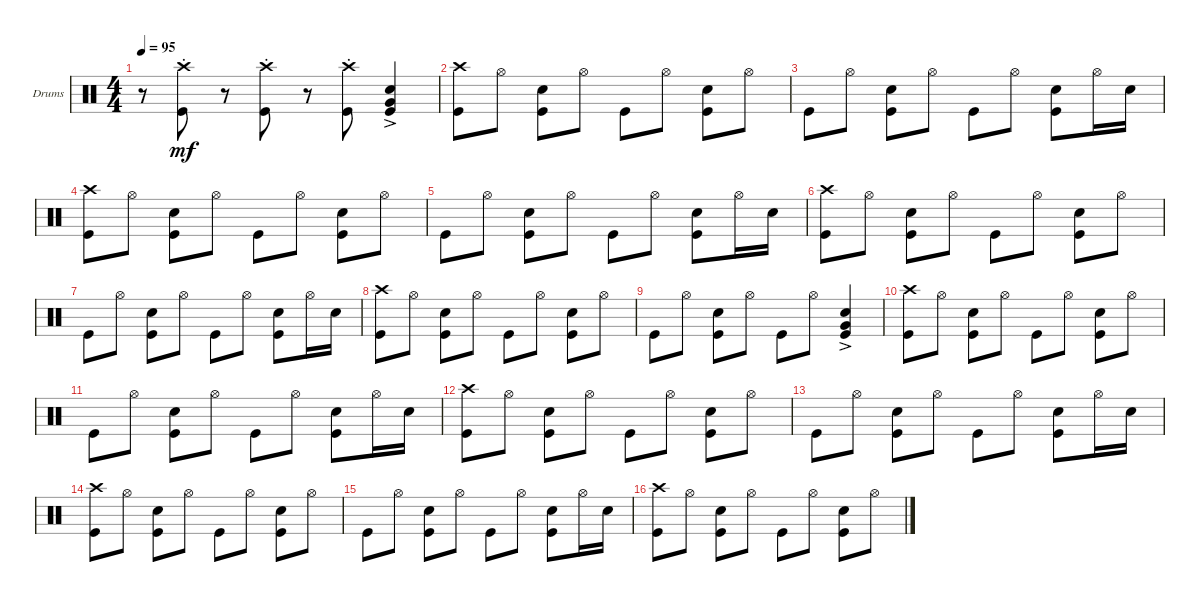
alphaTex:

\defaultSystemsLayout 4
\bracketExtendMode groupsimilarinstruments
\firstSystemTrackNameOrientation horizontal
\otherSystemsTrackNameOrientation horizontal
\track ("Drumkit" "Drums") {instrument percussion}
\staff {score}
\articulation defaults
\ts (4 4)
\tempo 95
\clef neutral
\ks c
r.8{dy mf} ("Kick (hit)" "Crash high (hit)"{st}).8 r.8 ("Kick (hit)" "Crash high (hit)"{st}).8 r.8 ("Crash high (hit)"{st} "Kick (hit)").8 ("Snare (hit) 2"{ac} "Very Low Tom (hit)"{ac} "Kick (hit)").4 |
("Crash high (hit)" "Kick (hit)").8 "Hi-Hat (open)".8 ("Snare (hit) 2" "Kick (hit)").8 "Hi-Hat (open)".8 "Kick (hit)".8 "Hi-Hat (open)".8 ("Snare (hit) 2" "Kick (hit)").8 "Hi-Hat (open)".8 |
"Kick (hit)".8 "Hi-Hat (open)".8 ("Snare (hit) 2" "Kick (hit)").8 "Hi-Hat (open)".8 "Kick (hit)".8 "Hi-Hat (open)".8 ("Snare (hit) 2" "Kick (hit)").8 "Hi-Hat (open)".16 "Snare (hit) 2".16 |
("Crash high (hit)" "Kick (hit)").8 "Hi-Hat (open)".8 ("Snare (hit) 2" "Kick (hit)").8 "Hi-Hat (open)".8 "Kick (hit)".8 "Hi-Hat (open)".8 ("Snare (hit) 2" "Kick (hit)").8 "Hi-Hat (open)".8 |
"Kick (hit)".8 "Hi-Hat (open)".8 ("Snare (hit) 2" "Kick (hit)").8 "Hi-Hat (open)".8 "Kick (hit)".8 "Hi-Hat (open)".8 ("Snare (hit) 2" "Kick (hit)").8 "Hi-Hat (open)".16 "Snare (hit) 2".16 |
("Crash high (hit)" "Kick (hit)").8 "Hi-Hat (open)".8 ("Snare (hit) 2" "Kick (hit)").8 "Hi-Hat (open)".8 "Kick (hit)".8 "Hi-Hat (open)".8 ("Snare (hit) 2" "Kick (hit)").8 "Hi-Hat (open)".8 |
"Kick (hit)".8 "Hi-Hat (open)".8 ("Snare (hit) 2" "Kick (hit)").8 "Hi-Hat (open)".8 "Kick (hit)".8 "Hi-Hat (open)".8 ("Snare (hit) 2" "Kick (hit)").8 "Hi-Hat (open)".16 "Snare (hit) 2".16 |
("Crash high (hit)" "Kick (hit)").8 "Hi-Hat (open)".8 ("Snare (hit) 2" "Kick (hit)").8 "Hi-Hat (open)".8 "Kick (hit)".8 "Hi-Hat (open)".8 ("Snare (hit) 2" "Kick (hit)").8 "Hi-Hat (open)".8 |
"Kick (hit)".8 "Hi-Hat (open)".8 ("Snare (hit) 2" "Kick (hit)").8 "Hi-Hat (open)".8 "Kick (hit)".8 "Hi-Hat (open)".8 ("Snare (hit) 2"{ac} "Very Low Tom (hit)"{ac} "Kick (hit)"{ac}).4 |
("Crash high (hit)" "Kick (hit)").8 "Hi-Hat (open)".8 ("Snare (hit) 2" "Kick (hit)").8 "Hi-Hat (open)".8 "Kick (hit)".8 "Hi-Hat (open)".8 ("Snare (hit) 2" "Kick (hit)").8 "Hi-Hat (open)".8 |
"Kick (hit)".8 "Hi-Hat (open)".8 ("Snare (hit) 2" "Kick (hit)").8 "Hi-Hat (open)".8 "Kick (hit)".8 "Hi-Hat (open)".8 ("Snare (hit) 2" "Kick (hit)").8 "Hi-Hat (open)".16 "Snare (hit) 2".16 |
("Crash high (hit)" "Kick (hit)").8 "Hi-Hat (open)".8 ("Snare (hit) 2" "Kick (hit)").8 "Hi-Hat (open)".8 "Kick (hit)".8 "Hi-Hat (open)".8 ("Snare (hit) 2" "Kick (hit)").8 "Hi-Hat (open)".8 |
"Kick (hit)".8 "Hi-Hat (open)".8 ("Snare (hit) 2" "Kick (hit)").8 "Hi-Hat (open)".8 "Kick (hit)".8 "Hi-Hat (open)".8 ("Snare (hit) 2" "Kick (hit)").8 "Hi-Hat (open)".16 "Snare (hit) 2".16 |
("Crash high (hit)" "Kick (hit)").8 "Hi-Hat (open)".8 ("Snare (hit) 2" "Kick (hit)").8 "Hi-Hat (open)".8 "Kick (hit)".8 "Hi-Hat (open)".8 ("Snare (hit) 2" "Kick (hit)").8 "Hi-Hat (open)".8 |
"Kick (hit)".8 "Hi-Hat (open)".8 ("Snare (hit) 2" "Kick (hit)").8 "Hi-Hat (open)".8 "Kick (hit)".8 "Hi-Hat (open)".8 ("Snare (hit) 2" "Kick (hit)").8 "Hi-Hat (open)".16 "Snare (hit) 2".16 |
("Crash high (hit)" "Kick (hit)").8 "Hi-Hat (open)".8 ("Snare (hit) 2" "Kick (hit)").8 "Hi-Hat (open)".8 "Kick (hit)".8 "Hi-Hat (open)".8 ("Snare (hit) 2" "Kick (hit)").8 "Hi-Hat (open)".8
